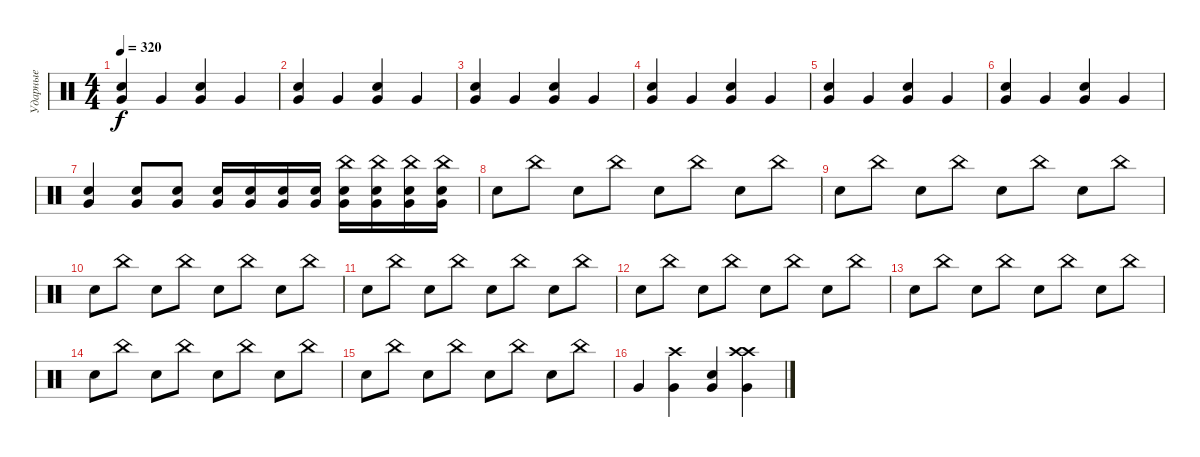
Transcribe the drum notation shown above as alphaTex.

\track ("Ударные" "Ударные") {instrument percussion}
\staff {score}
\articulation defaults
\ts (4 4)
\tempo 320
\clef neutral
\ks c
("Very Low Tom (hit)" "Electric Snare (hit)").4{dy f} "Very Low Tom (hit)".4 ("Very Low Tom (hit)" "Electric Snare (hit)").4 "Very Low Tom (hit)".4 |
("Very Low Tom (hit)" "Electric Snare (hit)").4 "Very Low Tom (hit)".4 ("Very Low Tom (hit)" "Electric Snare (hit)").4 "Very Low Tom (hit)".4 |
("Very Low Tom (hit)" "Electric Snare (hit)").4 "Very Low Tom (hit)".4 ("Very Low Tom (hit)" "Electric Snare (hit)").4 "Very Low Tom (hit)".4 |
("Very Low Tom (hit)" "Electric Snare (hit)").4 "Very Low Tom (hit)".4 ("Very Low Tom (hit)" "Electric Snare (hit)").4 "Very Low Tom (hit)".4 |
("Very Low Tom (hit)" "Electric Snare (hit)").4 "Very Low Tom (hit)".4 ("Very Low Tom (hit)" "Electric Snare (hit)").4 "Very Low Tom (hit)".4 |
("Very Low Tom (hit)" "Electric Snare (hit)").4 "Very Low Tom (hit)".4 ("Very Low Tom (hit)" "Electric Snare (hit)").4 "Very Low Tom (hit)".4 |
("Very Low Tom (hit)" "Electric Snare (hit)").4 ("Very Low Tom (hit)" "Electric Snare (hit)").8 ("Very Low Tom (hit)" "Electric Snare (hit)").8 ("Very Low Tom (hit)" "Electric Snare (hit)").16 ("Very Low Tom (hit)" "Electric Snare (hit)").16 ("Very Low Tom (hit)" "Electric Snare (hit)").16 ("Very Low Tom (hit)" "Electric Snare (hit)").16 ("Very Low Tom (hit)" "Electric Snare (hit)" "China (hit)").16 ("Very Low Tom (hit)" "Electric Snare (hit)" "China (hit)").16 ("Very Low Tom (hit)" "Electric Snare (hit)" "China (hit)").16 ("Very Low Tom (hit)" "Electric Snare (hit)" "China (hit)").16 |
"Electric Snare (hit)".8 "China (hit)".8 "Electric Snare (hit)".8 "China (hit)".8 "Electric Snare (hit)".8 "China (hit)".8 "Electric Snare (hit)".8 "China (hit)".8 |
"Electric Snare (hit)".8 "China (hit)".8 "Electric Snare (hit)".8 "China (hit)".8 "Electric Snare (hit)".8 "China (hit)".8 "Electric Snare (hit)".8 "China (hit)".8 |
"Electric Snare (hit)".8 "China (hit)".8 "Electric Snare (hit)".8 "China (hit)".8 "Electric Snare (hit)".8 "China (hit)".8 "Electric Snare (hit)".8 "China (hit)".8 |
"Electric Snare (hit)".8 "China (hit)".8 "Electric Snare (hit)".8 "China (hit)".8 "Electric Snare (hit)".8 "China (hit)".8 "Electric Snare (hit)".8 "China (hit)".8 |
"Electric Snare (hit)".8 "China (hit)".8 "Electric Snare (hit)".8 "China (hit)".8 "Electric Snare (hit)".8 "China (hit)".8 "Electric Snare (hit)".8 "China (hit)".8 |
"Electric Snare (hit)".8 "China (hit)".8 "Electric Snare (hit)".8 "China (hit)".8 "Electric Snare (hit)".8 "China (hit)".8 "Electric Snare (hit)".8 "China (hit)".8 |
"Electric Snare (hit)".8 "China (hit)".8 "Electric Snare (hit)".8 "China (hit)".8 "Electric Snare (hit)".8 "China (hit)".8 "Electric Snare (hit)".8 "China (hit)".8 |
"Electric Snare (hit)".8 "China (hit)".8 "Electric Snare (hit)".8 "China (hit)".8 "Electric Snare (hit)".8 "China (hit)".8 "Electric Snare (hit)".8 "China (hit)".8 |
"Very Low Tom (hit)".4 ("Crash high (hit)" "Very Low Tom (hit)").4 ("Electric Snare (hit)" "Very Low Tom (hit)").4 ("Crash high (hit)" "Crash high (hit)" "Very Low Tom (hit)").4
